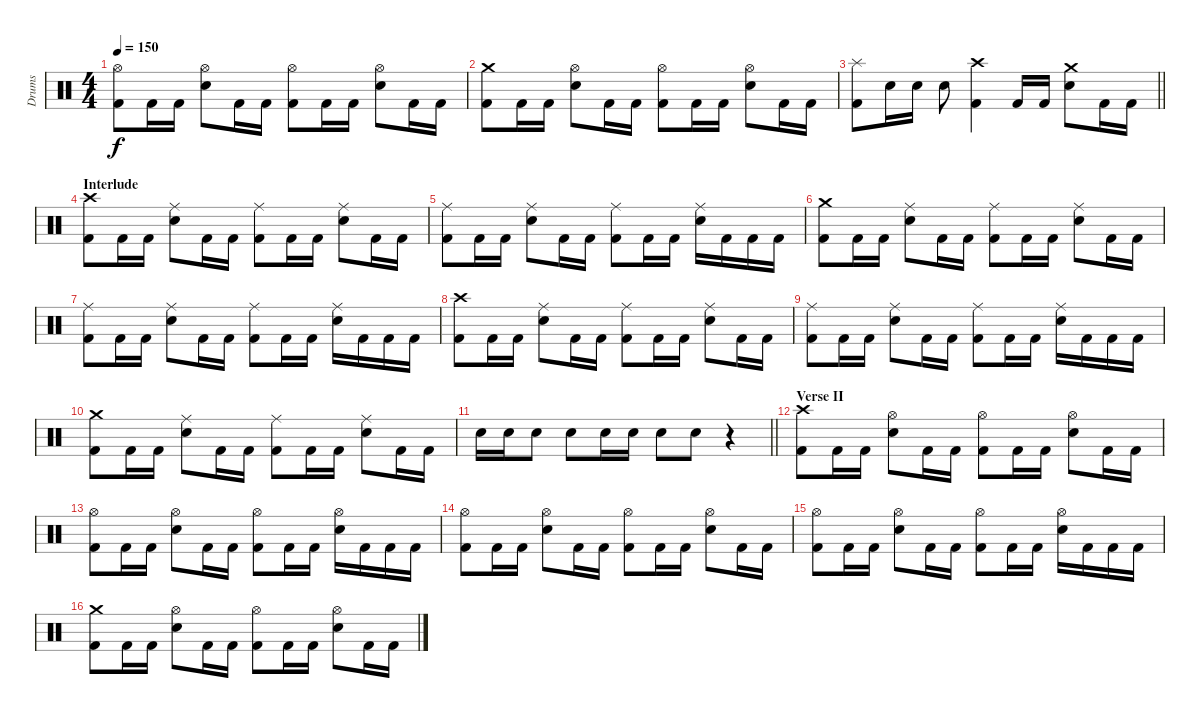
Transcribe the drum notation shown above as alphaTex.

\track ("Drums" "Drums") {instrument percussion}
\staff {score}
\articulation defaults
\ts (4 4)
\tempo 150
\clef neutral
\ks c
("Hi-Hat (open)" "Kick (hit) 2").8{dy f} "Kick (hit) 2".16 "Kick (hit) 2".16 ("Hi-Hat (open)" "Snare (hit) 2").8 "Kick (hit) 2".16 "Kick (hit) 2".16 ("Hi-Hat (open)" "Kick (hit) 2").8 "Kick (hit) 2".16 "Kick (hit) 2".16 ("Hi-Hat (open)" "Snare (hit) 2").8 "Kick (hit) 2".16 "Kick (hit) 2".16 |
("Crash medium (hit)" "Kick (hit) 2").8 "Kick (hit) 2".16 "Kick (hit) 2".16 ("Hi-Hat (open)" "Snare (hit) 2").8 "Kick (hit) 2".16 "Kick (hit) 2".16 ("Hi-Hat (open)" "Kick (hit) 2").8 "Kick (hit) 2".16 "Kick (hit) 2".16 ("Hi-Hat (open)" "Snare (hit) 2").8 "Kick (hit) 2".16 "Kick (hit) 2".16 |
\barLineRight lightlight
("Splash (hit)" "Kick (hit) 2").8 "Snare (hit) 2".16 "Snare (hit) 2".16 "Snare (hit) 2".8 ("Crash high (hit)" "Kick (hit) 2").4 "Kick (hit) 2".16 "Kick (hit) 2".16 ("Crash medium (hit)" "Snare (hit) 2").8 "Kick (hit) 2".16 "Kick (hit) 2".16 |
\section ("" "Interlude")
("Crash high (hit)" "Kick (hit) 2").8 "Kick (hit) 2".16 "Kick (hit) 2".16 ("Ride (middle)" "Snare (hit) 2").8 "Kick (hit) 2".16 "Kick (hit) 2".16 ("Ride (middle)" "Kick (hit) 2").8 "Kick (hit) 2".16 "Kick (hit) 2".16 ("Ride (middle)" "Snare (hit) 2").8 "Kick (hit) 2".16 "Kick (hit) 2".16 |
("Ride (middle)" "Kick (hit) 2").8 "Kick (hit) 2".16 "Kick (hit) 2".16 ("Ride (middle)" "Snare (hit) 2").8 "Kick (hit) 2".16 "Kick (hit) 2".16 ("Ride (middle)" "Kick (hit) 2").8 "Kick (hit) 2".16 "Kick (hit) 2".16 ("Ride (middle)" "Snare (hit) 2").16 "Kick (hit) 2".16 "Kick (hit) 2".16 "Kick (hit) 2".16 |
("Crash medium (hit)" "Kick (hit) 2").8 "Kick (hit) 2".16 "Kick (hit) 2".16 ("Ride (middle)" "Snare (hit) 2").8 "Kick (hit) 2".16 "Kick (hit) 2".16 ("Ride (middle)" "Kick (hit) 2").8 "Kick (hit) 2".16 "Kick (hit) 2".16 ("Ride (middle)" "Snare (hit) 2").8 "Kick (hit) 2".16 "Kick (hit) 2".16 |
("Ride (middle)" "Kick (hit) 2").8 "Kick (hit) 2".16 "Kick (hit) 2".16 ("Ride (middle)" "Snare (hit) 2").8 "Kick (hit) 2".16 "Kick (hit) 2".16 ("Ride (middle)" "Kick (hit) 2").8 "Kick (hit) 2".16 "Kick (hit) 2".16 ("Ride (middle)" "Snare (hit) 2").16 "Kick (hit) 2".16 "Kick (hit) 2".16 "Kick (hit) 2".16 |
("Crash high (hit)" "Kick (hit) 2").8 "Kick (hit) 2".16 "Kick (hit) 2".16 ("Ride (middle)" "Snare (hit) 2").8 "Kick (hit) 2".16 "Kick (hit) 2".16 ("Ride (middle)" "Kick (hit) 2").8 "Kick (hit) 2".16 "Kick (hit) 2".16 ("Ride (middle)" "Snare (hit) 2").8 "Kick (hit) 2".16 "Kick (hit) 2".16 |
("Ride (middle)" "Kick (hit) 2").8 "Kick (hit) 2".16 "Kick (hit) 2".16 ("Ride (middle)" "Snare (hit) 2").8 "Kick (hit) 2".16 "Kick (hit) 2".16 ("Ride (middle)" "Kick (hit) 2").8 "Kick (hit) 2".16 "Kick (hit) 2".16 ("Ride (middle)" "Snare (hit) 2").16 "Kick (hit) 2".16 "Kick (hit) 2".16 "Kick (hit) 2".16 |
("Crash medium (hit)" "Kick (hit) 2").8 "Kick (hit) 2".16 "Kick (hit) 2".16 ("Ride (middle)" "Snare (hit) 2").8 "Kick (hit) 2".16 "Kick (hit) 2".16 ("Ride (middle)" "Kick (hit) 2").8 "Kick (hit) 2".16 "Kick (hit) 2".16 ("Ride (middle)" "Snare (hit) 2").8 "Kick (hit) 2".16 "Kick (hit) 2".16 |
\barLineRight lightlight "Snare (hit) 2".16 "Snare (hit) 2".16 "Snare (hit) 2".8 "Snare (hit) 2".8 "Snare (hit) 2".16 "Snare (hit) 2".16 "Snare (hit) 2".8 "Snare (hit) 2".8
r.4 |
\section ("" "Verse II")
("Crash high (hit)" "Kick (hit) 2").8 "Kick (hit) 2".16 "Kick (hit) 2".16 ("Hi-Hat (open)" "Snare (hit) 2").8 "Kick (hit) 2".16 "Kick (hit) 2".16 ("Hi-Hat (open)" "Kick (hit) 2").8 "Kick (hit) 2".16 "Kick (hit) 2".16 ("Hi-Hat (open)" "Snare (hit) 2").8 "Kick (hit) 2".16 "Kick (hit) 2".16 |
("Hi-Hat (open)" "Kick (hit) 2").8 "Kick (hit) 2".16 "Kick (hit) 2".16 ("Hi-Hat (open)" "Snare (hit) 2").8 "Kick (hit) 2".16 "Kick (hit) 2".16 ("Hi-Hat (open)" "Kick (hit) 2").8 "Kick (hit) 2".16 "Kick (hit) 2".16 ("Hi-Hat (open)" "Snare (hit) 2").16 "Kick (hit) 2".16 "Kick (hit) 2".16 "Kick (hit) 2".16 |
("Hi-Hat (open)" "Kick (hit) 2").8 "Kick (hit) 2".16 "Kick (hit) 2".16 ("Hi-Hat (open)" "Snare (hit) 2").8 "Kick (hit) 2".16 "Kick (hit) 2".16 ("Hi-Hat (open)" "Kick (hit) 2").8 "Kick (hit) 2".16 "Kick (hit) 2".16 ("Hi-Hat (open)" "Snare (hit) 2").8 "Kick (hit) 2".16 "Kick (hit) 2".16 |
("Hi-Hat (open)" "Kick (hit) 2").8 "Kick (hit) 2".16 "Kick (hit) 2".16 ("Hi-Hat (open)" "Snare (hit) 2").8 "Kick (hit) 2".16 "Kick (hit) 2".16 ("Hi-Hat (open)" "Kick (hit) 2").8 "Kick (hit) 2".16 "Kick (hit) 2".16 ("Hi-Hat (open)" "Snare (hit) 2").16 "Kick (hit) 2".16 "Kick (hit) 2".16 "Kick (hit) 2".16 |
("Crash medium (hit)" "Kick (hit) 2").8 "Kick (hit) 2".16 "Kick (hit) 2".16 ("Hi-Hat (open)" "Snare (hit) 2").8 "Kick (hit) 2".16 "Kick (hit) 2".16 ("Hi-Hat (open)" "Kick (hit) 2").8 "Kick (hit) 2".16 "Kick (hit) 2".16 ("Hi-Hat (open)" "Snare (hit) 2").8 "Kick (hit) 2".16 "Kick (hit) 2".16
